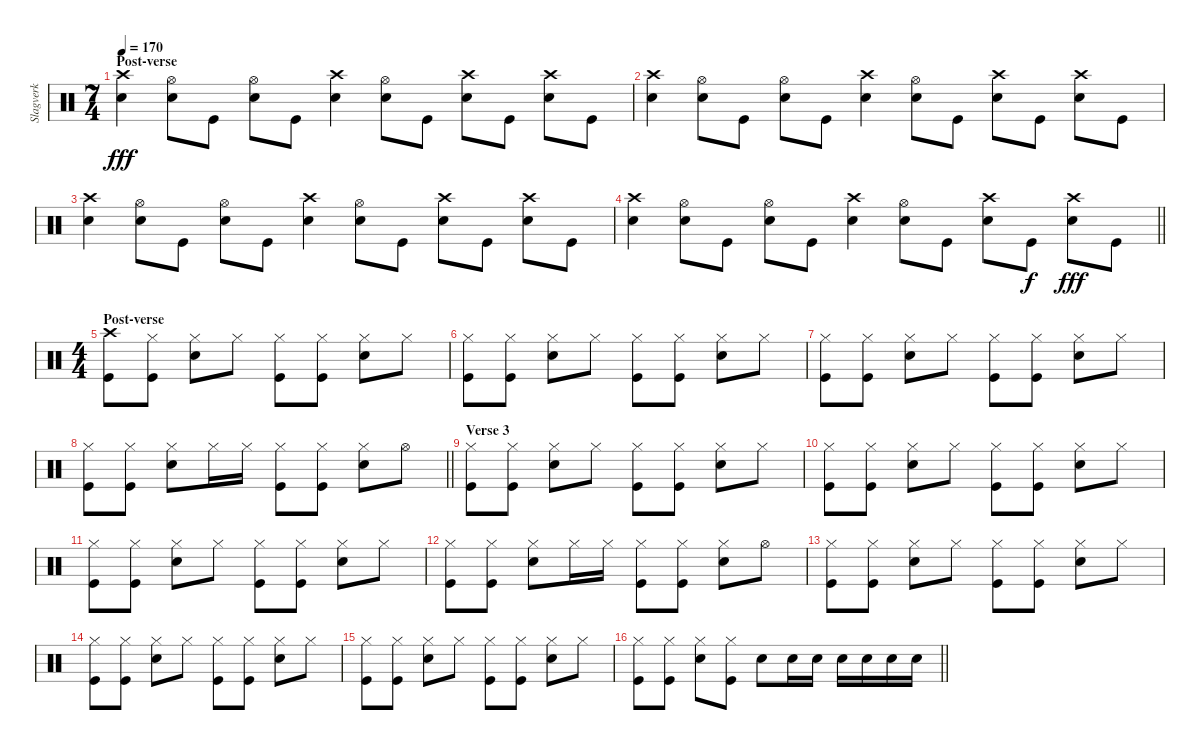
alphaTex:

\track ("Slagverk" "Slagverk") {instrument percussion}
\staff {score}
\articulation defaults
\ts (7 4)
\section ("" "Post-verse")
\tempo 170
\clef neutral
\ks c
("Crash high (hit)" "Electric Snare (hit)").4{dy fff} ("Hi-Hat (open)" "Electric Snare (hit)").8 "Kick (hit)".8 ("Hi-Hat (open)" "Electric Snare (hit)").8 "Kick (hit)".8 ("Crash high (hit)" "Electric Snare (hit)").4 ("Hi-Hat (open)" "Electric Snare (hit)").8 "Kick (hit)".8 ("Crash high (hit)" "Electric Snare (hit)").8 "Kick (hit)".8 ("Crash high (hit)" "Electric Snare (hit)").8 "Kick (hit)".8 |
("Crash high (hit)" "Electric Snare (hit)").4 ("Hi-Hat (open)" "Electric Snare (hit)").8 "Kick (hit)".8 ("Hi-Hat (open)" "Electric Snare (hit)").8 "Kick (hit)".8 ("Crash high (hit)" "Electric Snare (hit)").4 ("Hi-Hat (open)" "Electric Snare (hit)").8 "Kick (hit)".8 ("Crash high (hit)" "Electric Snare (hit)").8 "Kick (hit)".8 ("Crash high (hit)" "Electric Snare (hit)").8 "Kick (hit)".8 |
("Crash high (hit)" "Electric Snare (hit)").4 ("Hi-Hat (open)" "Electric Snare (hit)").8 "Kick (hit)".8 ("Hi-Hat (open)" "Electric Snare (hit)").8 "Kick (hit)".8 ("Crash high (hit)" "Electric Snare (hit)").4 ("Hi-Hat (open)" "Electric Snare (hit)").8 "Kick (hit)".8 ("Crash high (hit)" "Electric Snare (hit)").8 "Kick (hit)".8 ("Crash high (hit)" "Electric Snare (hit)").8 "Kick (hit)".8 |
\barLineRight lightlight
("Crash high (hit)" "Electric Snare (hit)").4 ("Hi-Hat (open)" "Electric Snare (hit)").8 "Kick (hit)".8 ("Hi-Hat (open)" "Electric Snare (hit)").8 "Kick (hit)".8 ("Crash high (hit)" "Electric Snare (hit)").4 ("Hi-Hat (open)" "Electric Snare (hit)").8 "Kick (hit)".8 ("Crash high (hit)" "Electric Snare (hit)").8 "Kick (hit)".8{dy f} ("Crash high (hit)" "Electric Snare (hit)").8{dy fff} "Kick (hit)".8 |
\ts (4 4)
\section ("" "Post-verse")
("Crash high (hit)" "Kick (hit)").8 ("Hi-Hat (closed)" "Kick (hit)").8 ("Hi-Hat (closed)" "Electric Snare (hit)").8 "Hi-Hat (closed)".8 ("Hi-Hat (closed)" "Kick (hit)").8 ("Hi-Hat (closed)" "Kick (hit)").8 ("Hi-Hat (closed)" "Electric Snare (hit)").8 "Hi-Hat (closed)".8 |
("Hi-Hat (closed)" "Kick (hit)").8 ("Hi-Hat (closed)" "Kick (hit)").8 ("Hi-Hat (closed)" "Electric Snare (hit)").8 "Hi-Hat (closed)".8 ("Hi-Hat (closed)" "Kick (hit)").8 ("Hi-Hat (closed)" "Kick (hit)").8 ("Hi-Hat (closed)" "Electric Snare (hit)").8 "Hi-Hat (closed)".8 |
("Hi-Hat (closed)" "Kick (hit)").8 ("Hi-Hat (closed)" "Kick (hit)").8 ("Hi-Hat (closed)" "Electric Snare (hit)").8 "Hi-Hat (closed)".8 ("Hi-Hat (closed)" "Kick (hit)").8 ("Hi-Hat (closed)" "Kick (hit)").8 ("Hi-Hat (closed)" "Electric Snare (hit)").8 "Hi-Hat (closed)".8 |
\barLineRight lightlight
("Hi-Hat (closed)" "Kick (hit)").8 ("Hi-Hat (closed)" "Kick (hit)").8 ("Hi-Hat (closed)" "Electric Snare (hit)").8 "Hi-Hat (closed)".16 "Hi-Hat (closed)".16 ("Hi-Hat (closed)" "Kick (hit)").8 ("Hi-Hat (closed)" "Kick (hit)").8 ("Hi-Hat (closed)" "Electric Snare (hit)").8 "Hi-Hat (open)".8 |
\section ("" "Verse 3")
("Hi-Hat (closed)" "Kick (hit)").8 ("Hi-Hat (closed)" "Kick (hit)").8 ("Hi-Hat (closed)" "Electric Snare (hit)").8 "Hi-Hat (closed)".8 ("Hi-Hat (closed)" "Kick (hit)").8 ("Hi-Hat (closed)" "Kick (hit)").8 ("Hi-Hat (closed)" "Electric Snare (hit)").8 "Hi-Hat (closed)".8 |
("Hi-Hat (closed)" "Kick (hit)").8 ("Hi-Hat (closed)" "Kick (hit)").8 ("Hi-Hat (closed)" "Electric Snare (hit)").8 "Hi-Hat (closed)".8 ("Hi-Hat (closed)" "Kick (hit)").8 ("Hi-Hat (closed)" "Kick (hit)").8 ("Hi-Hat (closed)" "Electric Snare (hit)").8 "Hi-Hat (closed)".8 |
("Hi-Hat (closed)" "Kick (hit)").8 ("Hi-Hat (closed)" "Kick (hit)").8 ("Hi-Hat (closed)" "Electric Snare (hit)").8 "Hi-Hat (closed)".8 ("Hi-Hat (closed)" "Kick (hit)").8 ("Hi-Hat (closed)" "Kick (hit)").8 ("Hi-Hat (closed)" "Electric Snare (hit)").8 "Hi-Hat (closed)".8 |
("Hi-Hat (closed)" "Kick (hit)").8 ("Hi-Hat (closed)" "Kick (hit)").8 ("Hi-Hat (closed)" "Electric Snare (hit)").8 "Hi-Hat (closed)".16 "Hi-Hat (closed)".16 ("Hi-Hat (closed)" "Kick (hit)").8 ("Hi-Hat (closed)" "Kick (hit)").8 ("Hi-Hat (closed)" "Electric Snare (hit)").8 "Hi-Hat (open)".8 |
("Hi-Hat (closed)" "Kick (hit)").8 ("Hi-Hat (closed)" "Kick (hit)").8 ("Hi-Hat (closed)" "Electric Snare (hit)").8 "Hi-Hat (closed)".8 ("Hi-Hat (closed)" "Kick (hit)").8 ("Hi-Hat (closed)" "Kick (hit)").8 ("Hi-Hat (closed)" "Electric Snare (hit)").8 "Hi-Hat (closed)".8 |
("Hi-Hat (closed)" "Kick (hit)").8 ("Hi-Hat (closed)" "Kick (hit)").8 ("Hi-Hat (closed)" "Electric Snare (hit)").8 "Hi-Hat (closed)".8 ("Hi-Hat (closed)" "Kick (hit)").8 ("Hi-Hat (closed)" "Kick (hit)").8 ("Hi-Hat (closed)" "Electric Snare (hit)").8 "Hi-Hat (closed)".8 |
("Hi-Hat (closed)" "Kick (hit)").8 ("Hi-Hat (closed)" "Kick (hit)").8 ("Hi-Hat (closed)" "Electric Snare (hit)").8 "Hi-Hat (closed)".8 ("Hi-Hat (closed)" "Kick (hit)").8 ("Hi-Hat (closed)" "Kick (hit)").8 ("Hi-Hat (closed)" "Electric Snare (hit)").8 "Hi-Hat (closed)".8 |
\barLineRight lightlight
("Hi-Hat (closed)" "Kick (hit)").8 ("Hi-Hat (closed)" "Kick (hit)").8 ("Hi-Hat (closed)" "Electric Snare (hit)").8 ("Hi-Hat (closed)" "Kick (hit)").8 "Electric Snare (hit)".8 "Electric Snare (hit)".16 "Electric Snare (hit)".16 "Electric Snare (hit)".16 "Electric Snare (hit)".16 "Electric Snare (hit)".16 "Electric Snare (hit)".16
